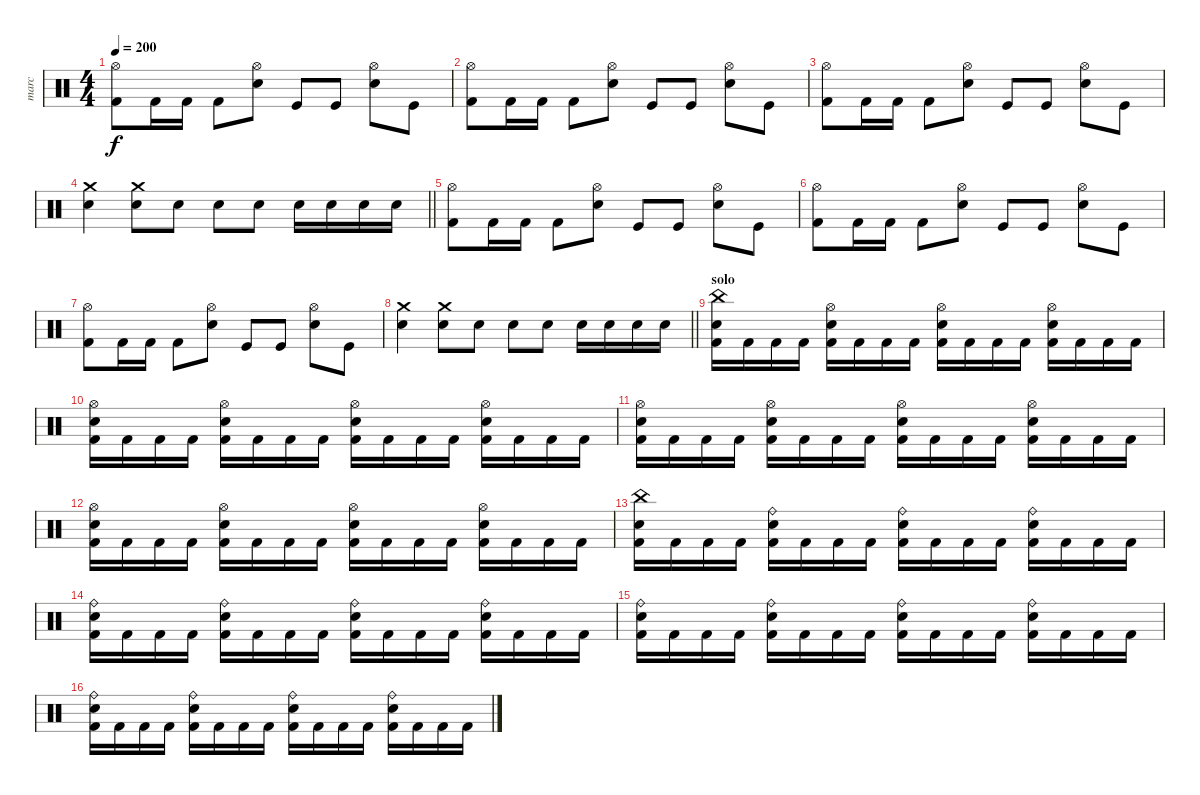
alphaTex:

\track ("marc" "marc") {instrument percussion}
\staff {score}
\articulation defaults
\ts (4 4)
\tempo 200
\clef neutral
\ks c
("Hi-Hat (open)" "Kick (hit) 2").8{dy f} "Kick (hit) 2".16 "Kick (hit) 2".16 "Kick (hit) 2".8 ("Hi-Hat (open)" "Snare (hit) 2").8 "Kick (hit)".8 "Kick (hit)".8 ("Hi-Hat (open)" "Snare (hit) 2").8 "Kick (hit)".8 |
("Hi-Hat (open)" "Kick (hit) 2").8 "Kick (hit) 2".16 "Kick (hit) 2".16 "Kick (hit) 2".8 ("Hi-Hat (open)" "Snare (hit) 2").8 "Kick (hit)".8 "Kick (hit)".8 ("Hi-Hat (open)" "Snare (hit) 2").8 "Kick (hit)".8 |
("Hi-Hat (open)" "Kick (hit) 2").8 "Kick (hit) 2".16 "Kick (hit) 2".16 "Kick (hit) 2".8 ("Hi-Hat (open)" "Snare (hit) 2").8 "Kick (hit)".8 "Kick (hit)".8 ("Hi-Hat (open)" "Snare (hit) 2").8 "Kick (hit)".8 |
\barLineRight lightlight
("Crash medium (hit)" "Snare (hit) 2").4 ("Crash medium (hit)" "Snare (hit) 2").8 "Snare (hit) 2".8 "Snare (hit) 2".8 "Snare (hit) 2".8 "Snare (hit) 2".16 "Snare (hit) 2".16 "Snare (hit) 2".16 "Snare (hit) 2".16 |
("Hi-Hat (open)" "Kick (hit) 2").8 "Kick (hit) 2".16 "Kick (hit) 2".16 "Kick (hit) 2".8 ("Hi-Hat (open)" "Snare (hit) 2").8 "Kick (hit)".8 "Kick (hit)".8 ("Hi-Hat (open)" "Snare (hit) 2").8 "Kick (hit)".8 |
("Hi-Hat (open)" "Kick (hit) 2").8 "Kick (hit) 2".16 "Kick (hit) 2".16 "Kick (hit) 2".8 ("Hi-Hat (open)" "Snare (hit) 2").8 "Kick (hit)".8 "Kick (hit)".8 ("Hi-Hat (open)" "Snare (hit) 2").8 "Kick (hit)".8 |
("Hi-Hat (open)" "Kick (hit) 2").8 "Kick (hit) 2".16 "Kick (hit) 2".16 "Kick (hit) 2".8 ("Hi-Hat (open)" "Snare (hit) 2").8 "Kick (hit)".8 "Kick (hit)".8 ("Hi-Hat (open)" "Snare (hit) 2").8 "Kick (hit)".8 |
\barLineRight lightlight
("Crash medium (hit)" "Snare (hit) 2").4 ("Crash medium (hit)" "Snare (hit) 2").8 "Snare (hit) 2".8 "Snare (hit) 2".8 "Snare (hit) 2".8 "Snare (hit) 2".16 "Snare (hit) 2".16 "Snare (hit) 2".16 "Snare (hit) 2".16 |
\section ("" "solo")
("China (hit)" "Snare (hit) 2" "Kick (hit) 2").16 "Kick (hit) 2".16 "Kick (hit) 2".16 "Kick (hit) 2".16 ("Hi-Hat (open)" "Snare (hit) 2" "Kick (hit) 2").16 "Kick (hit) 2".16 "Kick (hit) 2".16 "Kick (hit) 2".16 ("Hi-Hat (open)" "Snare (hit) 2" "Kick (hit) 2").16 "Kick (hit) 2".16 "Kick (hit) 2".16 "Kick (hit) 2".16 ("Hi-Hat (open)" "Snare (hit) 2" "Kick (hit) 2").16 "Kick (hit) 2".16 "Kick (hit) 2".16 "Kick (hit) 2".16 |
("Hi-Hat (open)" "Snare (hit) 2" "Kick (hit) 2").16 "Kick (hit) 2".16 "Kick (hit) 2".16 "Kick (hit) 2".16 ("Hi-Hat (open)" "Snare (hit) 2" "Kick (hit) 2").16 "Kick (hit) 2".16 "Kick (hit) 2".16 "Kick (hit) 2".16 ("Hi-Hat (open)" "Snare (hit) 2" "Kick (hit) 2").16 "Kick (hit) 2".16 "Kick (hit) 2".16 "Kick (hit) 2".16 ("Hi-Hat (open)" "Snare (hit) 2" "Kick (hit) 2").16 "Kick (hit) 2".16 "Kick (hit) 2".16 "Kick (hit) 2".16 |
("Hi-Hat (open)" "Snare (hit) 2" "Kick (hit) 2").16 "Kick (hit) 2".16 "Kick (hit) 2".16 "Kick (hit) 2".16 ("Hi-Hat (open)" "Snare (hit) 2" "Kick (hit) 2").16 "Kick (hit) 2".16 "Kick (hit) 2".16 "Kick (hit) 2".16 ("Hi-Hat (open)" "Snare (hit) 2" "Kick (hit) 2").16 "Kick (hit) 2".16 "Kick (hit) 2".16 "Kick (hit) 2".16 ("Hi-Hat (open)" "Snare (hit) 2" "Kick (hit) 2").16 "Kick (hit) 2".16 "Kick (hit) 2".16 "Kick (hit) 2".16 |
("Hi-Hat (open)" "Snare (hit) 2" "Kick (hit) 2").16 "Kick (hit) 2".16 "Kick (hit) 2".16 "Kick (hit) 2".16 ("Hi-Hat (open)" "Snare (hit) 2" "Kick (hit) 2").16 "Kick (hit) 2".16 "Kick (hit) 2".16 "Kick (hit) 2".16 ("Hi-Hat (open)" "Snare (hit) 2" "Kick (hit) 2").16 "Kick (hit) 2".16 "Kick (hit) 2".16 "Kick (hit) 2".16 ("Hi-Hat (open)" "Snare (hit) 2" "Kick (hit) 2").16 "Kick (hit) 2".16 "Kick (hit) 2".16 "Kick (hit) 2".16 |
("China (hit)" "Snare (hit) 2" "Kick (hit) 2").16 "Kick (hit) 2".16 "Kick (hit) 2".16 "Kick (hit) 2".16 ("Ride (bell)" "Snare (hit) 2" "Kick (hit) 2").16 "Kick (hit) 2".16 "Kick (hit) 2".16 "Kick (hit) 2".16 ("Ride (bell)" "Snare (hit) 2" "Kick (hit) 2").16 "Kick (hit) 2".16 "Kick (hit) 2".16 "Kick (hit) 2".16 ("Ride (bell)" "Snare (hit) 2" "Kick (hit) 2").16 "Kick (hit) 2".16 "Kick (hit) 2".16 "Kick (hit) 2".16 |
("Ride (bell)" "Snare (hit) 2" "Kick (hit) 2").16 "Kick (hit) 2".16 "Kick (hit) 2".16 "Kick (hit) 2".16 ("Ride (bell)" "Snare (hit) 2" "Kick (hit) 2").16 "Kick (hit) 2".16 "Kick (hit) 2".16 "Kick (hit) 2".16 ("Ride (bell)" "Snare (hit) 2" "Kick (hit) 2").16 "Kick (hit) 2".16 "Kick (hit) 2".16 "Kick (hit) 2".16 ("Ride (bell)" "Snare (hit) 2" "Kick (hit) 2").16 "Kick (hit) 2".16 "Kick (hit) 2".16 "Kick (hit) 2".16 |
("Ride (bell)" "Snare (hit) 2" "Kick (hit) 2").16 "Kick (hit) 2".16 "Kick (hit) 2".16 "Kick (hit) 2".16 ("Ride (bell)" "Snare (hit) 2" "Kick (hit) 2").16 "Kick (hit) 2".16 "Kick (hit) 2".16 "Kick (hit) 2".16 ("Ride (bell)" "Snare (hit) 2" "Kick (hit) 2").16 "Kick (hit) 2".16 "Kick (hit) 2".16 "Kick (hit) 2".16 ("Ride (bell)" "Snare (hit) 2" "Kick (hit) 2").16 "Kick (hit) 2".16 "Kick (hit) 2".16 "Kick (hit) 2".16 |
("Ride (bell)" "Snare (hit) 2" "Kick (hit) 2").16 "Kick (hit) 2".16 "Kick (hit) 2".16 "Kick (hit) 2".16 ("Ride (bell)" "Snare (hit) 2" "Kick (hit) 2").16 "Kick (hit) 2".16 "Kick (hit) 2".16 "Kick (hit) 2".16 ("Ride (bell)" "Snare (hit) 2" "Kick (hit) 2").16 "Kick (hit) 2".16 "Kick (hit) 2".16 "Kick (hit) 2".16 ("Ride (bell)" "Snare (hit) 2" "Kick (hit) 2").16 "Kick (hit) 2".16 "Kick (hit) 2".16 "Kick (hit) 2".16
